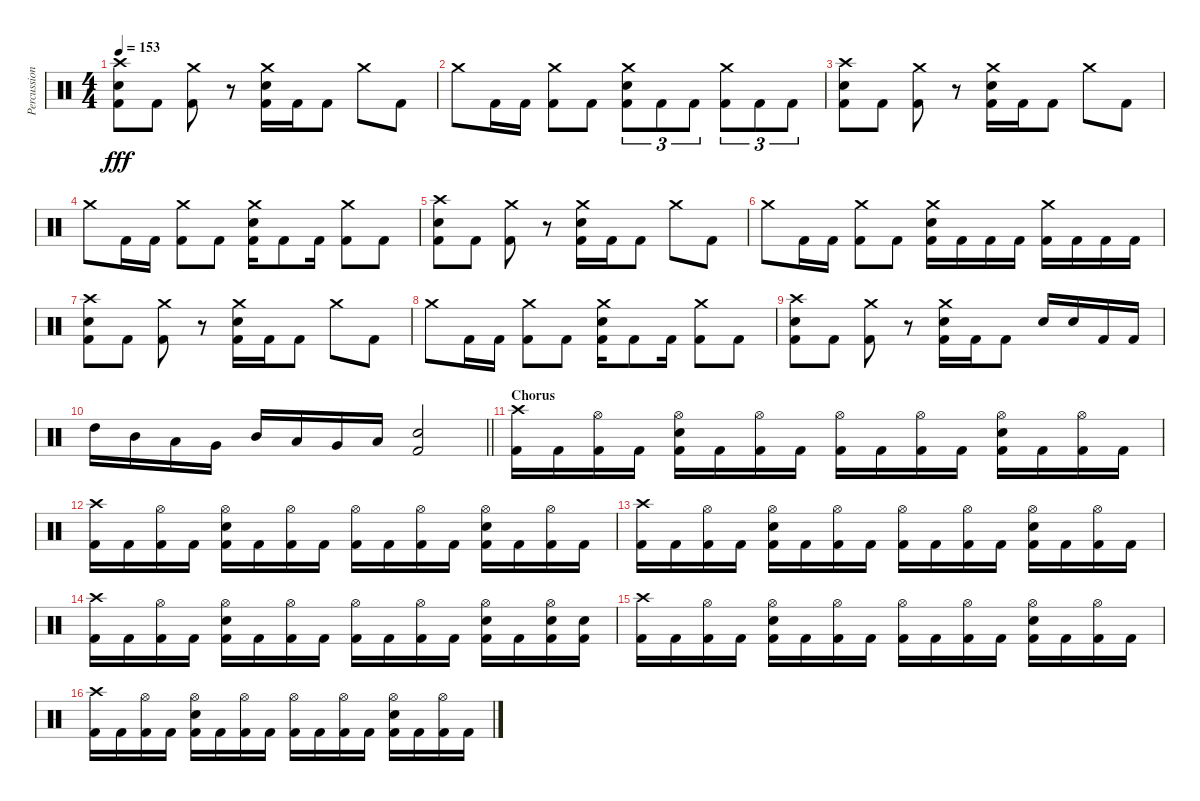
\track ("Percussion" "Percussion") {instrument percussion}
\staff {score}
\articulation defaults
\ts (4 4)
\tempo 153
\clef neutral
\ks c
("Crash high (hit)" "Snare (hit) 2" "Kick (hit) 2").8{dy fff} "Kick (hit) 2".8 ("Crash medium (hit)" "Kick (hit) 2").8 r.8 ("Snare (hit) 2" "Crash medium (hit)" "Kick (hit) 2").16 "Kick (hit) 2".16 "Kick (hit) 2".8 "Crash medium (hit)".8 "Kick (hit) 2".8 |
"Crash medium (hit)".8 "Kick (hit) 2".16 "Kick (hit) 2".16 ("Crash medium (hit)" "Kick (hit) 2").8 "Kick (hit) 2".8 ("Snare (hit) 2" "Crash medium (hit)" "Kick (hit) 2").8{tu (3 2)} "Kick (hit) 2".8{tu (3 2)} "Kick (hit) 2".8{tu (3 2)} ("Crash medium (hit)" "Kick (hit) 2").8{tu (3 2)} "Kick (hit) 2".8{tu (3 2)} "Kick (hit) 2".8{tu (3 2)} |
("Crash high (hit)" "Snare (hit) 2" "Kick (hit) 2").8 "Kick (hit) 2".8 ("Crash medium (hit)" "Kick (hit) 2").8 r.8 ("Snare (hit) 2" "Crash medium (hit)" "Kick (hit) 2").16 "Kick (hit) 2".16 "Kick (hit) 2".8 "Crash medium (hit)".8 "Kick (hit) 2".8 |
"Crash medium (hit)".8 "Kick (hit) 2".16 "Kick (hit) 2".16 ("Crash medium (hit)" "Kick (hit) 2").8 "Kick (hit) 2".8 ("Snare (hit) 2" "Crash medium (hit)" "Kick (hit) 2").16 "Kick (hit) 2".8 "Kick (hit) 2".16 ("Crash medium (hit)" "Kick (hit) 2").8 "Kick (hit) 2".8 |
("Crash high (hit)" "Snare (hit) 2" "Kick (hit) 2").8 "Kick (hit) 2".8 ("Crash medium (hit)" "Kick (hit) 2").8 r.8 ("Snare (hit) 2" "Crash medium (hit)" "Kick (hit) 2").16 "Kick (hit) 2".16 "Kick (hit) 2".8 "Crash medium (hit)".8 "Kick (hit) 2".8 |
"Crash medium (hit)".8 "Kick (hit) 2".16 "Kick (hit) 2".16 ("Crash medium (hit)" "Kick (hit) 2").8 "Kick (hit) 2".8 ("Snare (hit) 2" "Crash medium (hit)" "Kick (hit) 2").16 "Kick (hit) 2".16 "Kick (hit) 2".16 "Kick (hit) 2".16 ("Crash medium (hit)" "Kick (hit) 2").16 "Kick (hit) 2".16 "Kick (hit) 2".16 "Kick (hit) 2".16 |
("Crash high (hit)" "Snare (hit) 2" "Kick (hit) 2").8 "Kick (hit) 2".8 ("Crash medium (hit)" "Kick (hit) 2").8 r.8 ("Snare (hit) 2" "Crash medium (hit)" "Kick (hit) 2").16 "Kick (hit) 2".16 "Kick (hit) 2".8 "Crash medium (hit)".8 "Kick (hit) 2".8 |
"Crash medium (hit)".8 "Kick (hit) 2".16 "Kick (hit) 2".16 ("Crash medium (hit)" "Kick (hit) 2").8 "Kick (hit) 2".8 ("Snare (hit) 2" "Crash medium (hit)" "Kick (hit) 2").16 "Kick (hit) 2".8 "Kick (hit) 2".16 ("Crash medium (hit)" "Kick (hit) 2").8 "Kick (hit) 2".8 |
("Crash high (hit)" "Snare (hit) 2" "Kick (hit) 2").8 "Kick (hit) 2".8 ("Crash medium (hit)" "Kick (hit) 2").8 r.8 ("Snare (hit) 2" "Crash medium (hit)" "Kick (hit) 2").16 "Kick (hit) 2".16 "Kick (hit) 2".8 "Snare (hit) 2".16 "Snare (hit) 2".16 "Kick (hit) 2".16 "Kick (hit) 2".16 |
\barLineRight lightlight "High Tom (hit)".16 "Mid Tom (hit)".16 "Low Tom (hit)".16 "Very Low Tom (hit)".16 "Mid Tom (hit)".16 "Low Tom (hit)".16 "Very Low Tom (hit)".16 "Low Floor Tom (hit)".16
("Snare (hit) 2" "Kick (hit) 2").2 |
\section ("" "Chorus")
("Crash high (hit)" "Kick (hit) 2").16 "Kick (hit) 2".16 ("Hi-Hat (open)" "Kick (hit) 2").16 "Kick (hit) 2".16 ("Hi-Hat (open)" "Snare (hit) 2" "Kick (hit) 2").16 "Kick (hit) 2".16 ("Hi-Hat (open)" "Kick (hit) 2").16 "Kick (hit) 2".16 ("Hi-Hat (open)" "Kick (hit) 2").16 "Kick (hit) 2".16 ("Hi-Hat (open)" "Kick (hit) 2").16 "Kick (hit) 2".16 ("Hi-Hat (open)" "Snare (hit) 2" "Kick (hit) 2").16 "Kick (hit) 2".16 ("Hi-Hat (open)" "Kick (hit) 2").16 "Kick (hit) 2".16 |
("Crash high (hit)" "Kick (hit) 2").16 "Kick (hit) 2".16 ("Hi-Hat (open)" "Kick (hit) 2").16 "Kick (hit) 2".16 ("Hi-Hat (open)" "Snare (hit) 2" "Kick (hit) 2").16 "Kick (hit) 2".16 ("Hi-Hat (open)" "Kick (hit) 2").16 "Kick (hit) 2".16 ("Hi-Hat (open)" "Kick (hit) 2").16 "Kick (hit) 2".16 ("Hi-Hat (open)" "Kick (hit) 2").16 "Kick (hit) 2".16 ("Hi-Hat (open)" "Snare (hit) 2" "Kick (hit) 2").16 "Kick (hit) 2".16 ("Hi-Hat (open)" "Kick (hit) 2").16 "Kick (hit) 2".16 |
("Crash high (hit)" "Kick (hit) 2").16 "Kick (hit) 2".16 ("Hi-Hat (open)" "Kick (hit) 2").16 "Kick (hit) 2".16 ("Hi-Hat (open)" "Snare (hit) 2" "Kick (hit) 2").16 "Kick (hit) 2".16 ("Hi-Hat (open)" "Kick (hit) 2").16 "Kick (hit) 2".16 ("Hi-Hat (open)" "Kick (hit) 2").16 "Kick (hit) 2".16 ("Hi-Hat (open)" "Kick (hit) 2").16 "Kick (hit) 2".16 ("Hi-Hat (open)" "Snare (hit) 2" "Kick (hit) 2").16 "Kick (hit) 2".16 ("Hi-Hat (open)" "Kick (hit) 2").16 "Kick (hit) 2".16 |
("Crash high (hit)" "Kick (hit) 2").16 "Kick (hit) 2".16 ("Hi-Hat (open)" "Kick (hit) 2").16 "Kick (hit) 2".16 ("Hi-Hat (open)" "Snare (hit) 2" "Kick (hit) 2").16 "Kick (hit) 2".16 ("Hi-Hat (open)" "Kick (hit) 2").16 "Kick (hit) 2".16 ("Hi-Hat (open)" "Kick (hit) 2").16 "Kick (hit) 2".16 ("Hi-Hat (open)" "Kick (hit) 2").16 "Kick (hit) 2".16 ("Hi-Hat (open)" "Snare (hit) 2" "Kick (hit) 2").16 "Kick (hit) 2".16 ("Hi-Hat (open)" "Snare (hit) 2" "Kick (hit) 2").16 ("Snare (hit) 2" "Kick (hit) 2").16 |
("Crash high (hit)" "Kick (hit) 2").16 "Kick (hit) 2".16 ("Hi-Hat (open)" "Kick (hit) 2").16 "Kick (hit) 2".16 ("Hi-Hat (open)" "Snare (hit) 2" "Kick (hit) 2").16 "Kick (hit) 2".16 ("Hi-Hat (open)" "Kick (hit) 2").16 "Kick (hit) 2".16 ("Hi-Hat (open)" "Kick (hit) 2").16 "Kick (hit) 2".16 ("Hi-Hat (open)" "Kick (hit) 2").16 "Kick (hit) 2".16 ("Hi-Hat (open)" "Snare (hit) 2" "Kick (hit) 2").16 "Kick (hit) 2".16 ("Hi-Hat (open)" "Kick (hit) 2").16 "Kick (hit) 2".16 |
("Crash high (hit)" "Kick (hit) 2").16 "Kick (hit) 2".16 ("Hi-Hat (open)" "Kick (hit) 2").16 "Kick (hit) 2".16 ("Hi-Hat (open)" "Snare (hit) 2" "Kick (hit) 2").16 "Kick (hit) 2".16 ("Hi-Hat (open)" "Kick (hit) 2").16 "Kick (hit) 2".16 ("Hi-Hat (open)" "Kick (hit) 2").16 "Kick (hit) 2".16 ("Hi-Hat (open)" "Kick (hit) 2").16 "Kick (hit) 2".16 ("Hi-Hat (open)" "Snare (hit) 2" "Kick (hit) 2").16 "Kick (hit) 2".16 ("Hi-Hat (open)" "Kick (hit) 2").16 "Kick (hit) 2".16
